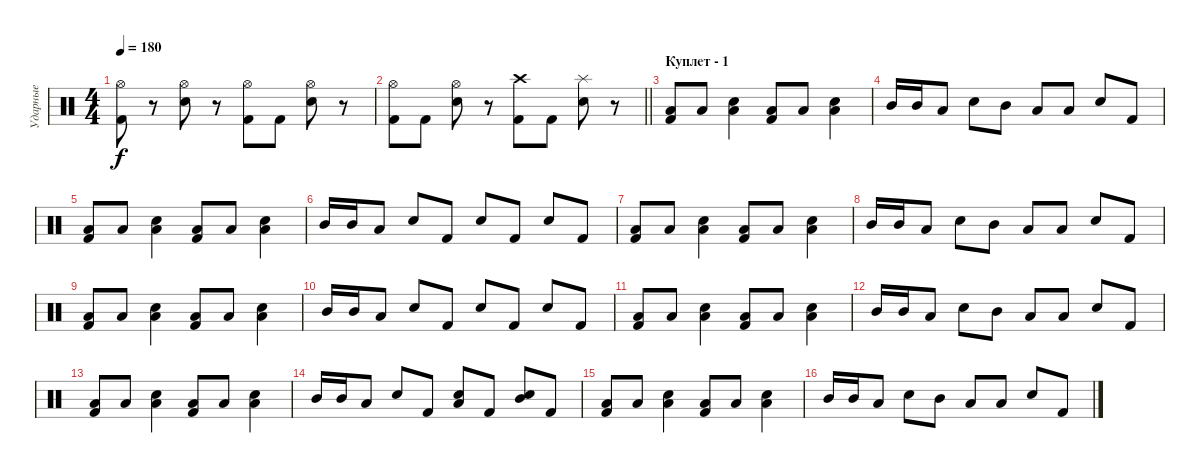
\track ("Ударные" "Ударные") {instrument percussion}
\staff {score}
\articulation defaults
\ts (4 4)
\tempo 180
\clef neutral
\ks c
("Hi-Hat (open)" "Kick (hit) 2").8{dy f} r.8 ("Hi-Hat (open)" "Snare (hit) 2").8 r.8 ("Hi-Hat (open)" "Kick (hit) 2").8 "Kick (hit) 2".8 ("Hi-Hat (open)" "Snare (hit) 2").8 r.8 |
\barLineRight lightlight
("Hi-Hat (open)" "Kick (hit) 2").8 "Kick (hit) 2".8 ("Hi-Hat (open)" "Snare (hit) 2").8 r.8 ("Crash high (hit)" "Kick (hit) 2").8 "Kick (hit) 2".8 ("Splash (hit)" "Snare (hit) 2").8 r.8 |
\section ("" "Куплет - 1")
("Low Floor Tom (hit)" "Kick (hit) 2").8 "Low Tom (hit)".8 ("Low Floor Tom (hit)" "Snare (hit) 2").4 ("Low Floor Tom (hit)" "Kick (hit) 2").8 "Low Tom (hit)".8 ("Low Floor Tom (hit)" "Snare (hit) 2").4 |
"Mid Tom (hit)".16 "Mid Tom (hit)".16 "Low Tom (hit)".8 "Snare (hit) 2".8 "Mid Tom (hit)".8 "Low Tom (hit)".8 "Low Tom (hit)".8 "Snare (hit) 2".8 "Kick (hit) 2".8 |
("Low Floor Tom (hit)" "Kick (hit) 2").8 "Low Tom (hit)".8 ("Low Floor Tom (hit)" "Snare (hit) 2").4 ("Low Floor Tom (hit)" "Kick (hit) 2").8 "Low Tom (hit)".8 ("Low Floor Tom (hit)" "Snare (hit) 2").4 |
"Mid Tom (hit)".16 "Mid Tom (hit)".16 "Low Tom (hit)".8 "Snare (hit) 2".8 "Kick (hit) 2".8 "Snare (hit) 2".8 "Kick (hit) 2".8 "Snare (hit) 2".8 "Kick (hit) 2".8 |
("Low Floor Tom (hit)" "Kick (hit) 2").8 "Low Tom (hit)".8 ("Low Floor Tom (hit)" "Snare (hit) 2").4 ("Low Floor Tom (hit)" "Kick (hit) 2").8 "Low Tom (hit)".8 ("Low Floor Tom (hit)" "Snare (hit) 2").4 |
"Mid Tom (hit)".16 "Mid Tom (hit)".16 "Low Tom (hit)".8 "Snare (hit) 2".8 "Mid Tom (hit)".8 "Low Tom (hit)".8 "Low Tom (hit)".8 "Snare (hit) 2".8 "Kick (hit) 2".8 |
("Low Floor Tom (hit)" "Kick (hit) 2").8 "Low Tom (hit)".8 ("Low Floor Tom (hit)" "Snare (hit) 2").4 ("Low Floor Tom (hit)" "Kick (hit) 2").8 "Low Tom (hit)".8 ("Low Floor Tom (hit)" "Snare (hit) 2").4 |
"Mid Tom (hit)".16 "Mid Tom (hit)".16 "Low Tom (hit)".8 "Snare (hit) 2".8 "Kick (hit) 2".8 "Snare (hit) 2".8 "Kick (hit) 2".8 "Snare (hit) 2".8 "Kick (hit) 2".8 |
("Low Floor Tom (hit)" "Kick (hit) 2").8 "Low Tom (hit)".8 ("Low Floor Tom (hit)" "Snare (hit) 2").4 ("Low Floor Tom (hit)" "Kick (hit) 2").8 "Low Tom (hit)".8 ("Low Floor Tom (hit)" "Snare (hit) 2").4 |
"Mid Tom (hit)".16 "Mid Tom (hit)".16 "Low Tom (hit)".8 "Snare (hit) 2".8 "Mid Tom (hit)".8 "Low Tom (hit)".8 "Low Tom (hit)".8 "Snare (hit) 2".8 "Kick (hit) 2".8 |
("Low Floor Tom (hit)" "Kick (hit) 2").8 "Low Tom (hit)".8 ("Low Floor Tom (hit)" "Snare (hit) 2").4 ("Low Floor Tom (hit)" "Kick (hit) 2").8 "Low Tom (hit)".8 ("Low Floor Tom (hit)" "Snare (hit) 2").4 |
"Mid Tom (hit)".16 "Mid Tom (hit)".16 "Low Tom (hit)".8 "Snare (hit) 2".8 "Kick (hit) 2".8 ("Low Tom (hit)" "Snare (hit) 2").8 "Kick (hit) 2".8 ("Mid Tom (hit)" "Snare (hit) 2").8 "Kick (hit) 2".8 |
("Low Floor Tom (hit)" "Kick (hit) 2").8 "Low Tom (hit)".8 ("Low Floor Tom (hit)" "Snare (hit) 2").4 ("Low Floor Tom (hit)" "Kick (hit) 2").8 "Low Tom (hit)".8 ("Low Floor Tom (hit)" "Snare (hit) 2").4 |
"Mid Tom (hit)".16 "Mid Tom (hit)".16 "Low Tom (hit)".8 "Snare (hit) 2".8 "Mid Tom (hit)".8 "Low Tom (hit)".8 "Low Tom (hit)".8 "Snare (hit) 2".8 "Kick (hit) 2".8
